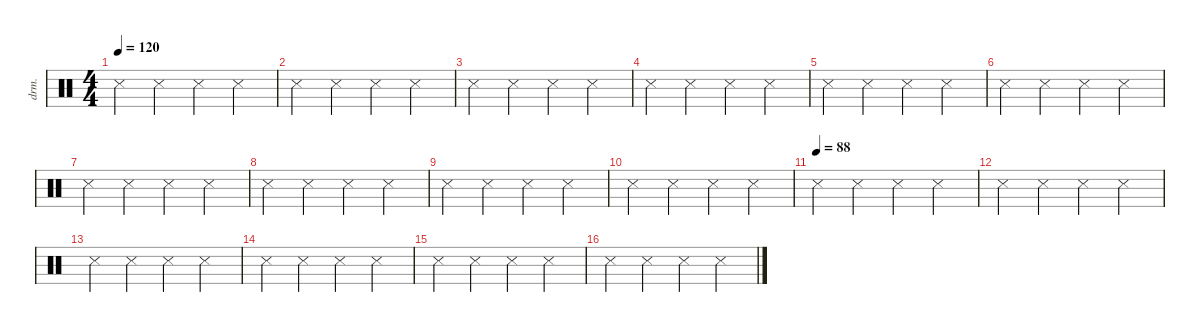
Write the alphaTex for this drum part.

\defaultSystemsLayout 4
\hideDynamics
\bracketExtendMode nobrackets
\otherSystemsTrackNameOrientation horizontal
\track ("Drumkit" "drm.") {instrument percussion}
\staff {score}
\articulation defaults
\ts (4 4)
\tempo 120
\clef neutral
\ks c "Metronome (hit)".4{dy mf beam Down} "Metronome (hit)".4{beam Down} "Metronome (hit)".4{beam Down} "Metronome (hit)".4{beam Down}
|
"Metronome (hit)".4{beam Down} "Metronome (hit)".4{beam Down} "Metronome (hit)".4{beam Down} "Metronome (hit)".4{beam Down} |
"Metronome (hit)".4{beam Down} "Metronome (hit)".4{beam Down} "Metronome (hit)".4{beam Down} "Metronome (hit)".4{beam Down} |
"Metronome (hit)".4{beam Down} "Metronome (hit)".4{beam Down} "Metronome (hit)".4{beam Down} "Metronome (hit)".4{beam Down} |
"Metronome (hit)".4{beam Down} "Metronome (hit)".4{beam Down} "Metronome (hit)".4{beam Down} "Metronome (hit)".4{beam Down} |
"Metronome (hit)".4{beam Down} "Metronome (hit)".4{beam Down} "Metronome (hit)".4{beam Down} "Metronome (hit)".4{beam Down} |
"Metronome (hit)".4{beam Down} "Metronome (hit)".4{beam Down} "Metronome (hit)".4{beam Down} "Metronome (hit)".4{beam Down} |
"Metronome (hit)".4{beam Down} "Metronome (hit)".4{beam Down} "Metronome (hit)".4{beam Down} "Metronome (hit)".4{beam Down} |
"Metronome (hit)".4{beam Down} "Metronome (hit)".4{beam Down} "Metronome (hit)".4{beam Down} "Metronome (hit)".4{beam Down} |
"Metronome (hit)".4{beam Down} "Metronome (hit)".4{beam Down} "Metronome (hit)".4{beam Down} "Metronome (hit)".4{beam Down} |
\tempo (88)
"Metronome (hit)".4{beam Down} "Metronome (hit)".4{beam Down} "Metronome (hit)".4{beam Down} "Metronome (hit)".4{beam Down} |
"Metronome (hit)".4{beam Down} "Metronome (hit)".4{beam Down} "Metronome (hit)".4{beam Down} "Metronome (hit)".4{beam Down} |
"Metronome (hit)".4{beam Down} "Metronome (hit)".4{beam Down} "Metronome (hit)".4{beam Down} "Metronome (hit)".4{beam Down} |
"Metronome (hit)".4{beam Down} "Metronome (hit)".4{beam Down} "Metronome (hit)".4{beam Down} "Metronome (hit)".4{beam Down} |
"Metronome (hit)".4{beam Down} "Metronome (hit)".4{beam Down} "Metronome (hit)".4{beam Down} "Metronome (hit)".4{beam Down} |
"Metronome (hit)".4{beam Down} "Metronome (hit)".4{beam Down} "Metronome (hit)".4{beam Down} "Metronome (hit)".4{beam Down}
